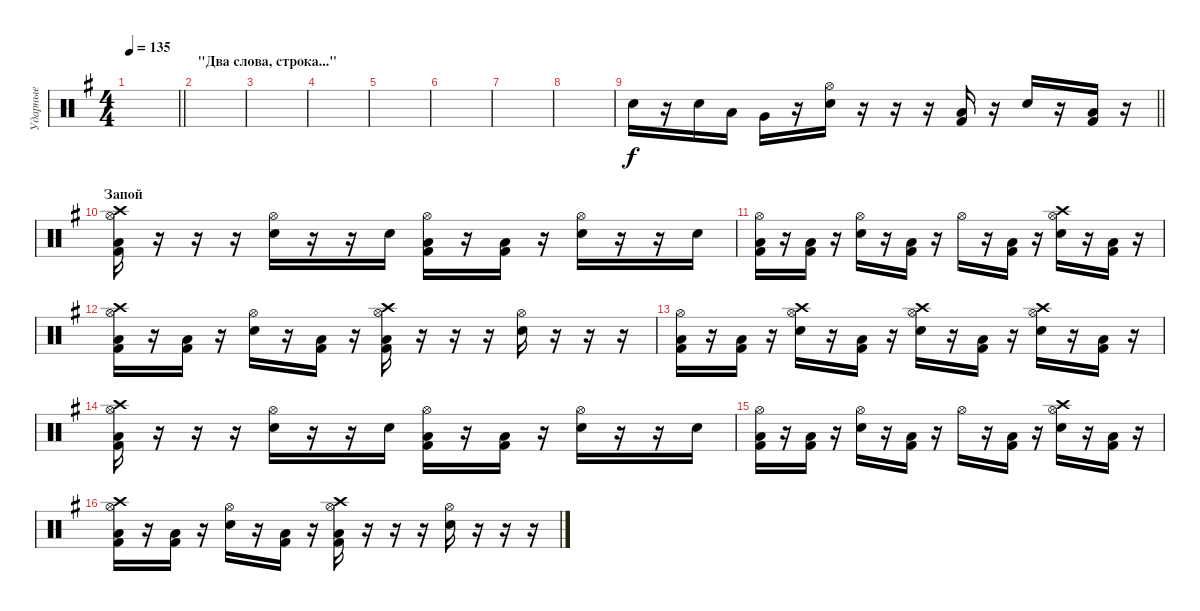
\track ("Ударные" "Ударные") {instrument percussion}
\staff {score}
\articulation defaults
\ts (4 4)
\tempo 135
\clef neutral
\barLineRight lightlight
\ks eminor
|
\section ("" "\"Два слова, строка...\"")
|
|
|
|
|
|
|
\barLineRight lightlight "Electric Snare (hit)".16
r.16 "Electric Snare (hit)".16 "Low Tom (hit)".16 "Very Low Tom (hit)".16 r.16 ("Hi-Hat (open)" "Electric Snare (hit)").16 r.16 r.16 r.16 ("Low Floor Tom (hit)" "Kick (hit) 2").16 r.16 "Electric Snare (hit)".16 r.16 ("Low Floor Tom (hit)" "Kick (hit) 2").16 r.16 |
\section ("" "Запой")
("Crash high (hit)" "Hi-Hat (open)" "Low Floor Tom (hit)" "Kick (hit) 2").16 r.16 r.16 r.16 ("Hi-Hat (open)" "Electric Snare (hit)").16 r.16 r.16 "Electric Snare (hit)".16 ("Hi-Hat (open)" "Low Floor Tom (hit)" "Kick (hit) 2").16 r.16 ("Low Floor Tom (hit)" "Kick (hit) 2").16 r.16 ("Hi-Hat (open)" "Electric Snare (hit)").16 r.16 r.16 "Electric Snare (hit)".16 |
("Hi-Hat (open)" "Low Floor Tom (hit)" "Kick (hit) 2").16 r.16 ("Low Floor Tom (hit)" "Kick (hit) 2").16 r.16 ("Hi-Hat (open)" "Electric Snare (hit)").16 r.16 ("Low Floor Tom (hit)" "Kick (hit) 2").16 r.16 "Hi-Hat (open)".16 r.16 ("Low Floor Tom (hit)" "Kick (hit) 2").16 r.16 ("Crash high (hit)" "Hi-Hat (open)" "Electric Snare (hit)").16 r.16 ("Low Floor Tom (hit)" "Kick (hit) 2").16 r.16 |
("Crash high (hit)" "Hi-Hat (open)" "Low Floor Tom (hit)" "Kick (hit) 2").16 r.16 ("Low Floor Tom (hit)" "Kick (hit) 2").16 r.16 ("Hi-Hat (open)" "Electric Snare (hit)").16 r.16 ("Low Floor Tom (hit)" "Kick (hit) 2").16 r.16 ("Crash high (hit)" "Hi-Hat (open)" "Low Floor Tom (hit)" "Kick (hit) 2").16 r.16 r.16 r.16 ("Hi-Hat (open)" "Electric Snare (hit)").16 r.16 r.16 r.16 |
("Hi-Hat (open)" "Low Floor Tom (hit)" "Kick (hit) 2").16 r.16 ("Low Floor Tom (hit)" "Kick (hit) 2").16 r.16 ("Crash high (hit)" "Hi-Hat (open)" "Electric Snare (hit)").16 r.16 ("Low Floor Tom (hit)" "Kick (hit) 2").16 r.16 ("Crash high (hit)" "Hi-Hat (open)" "Electric Snare (hit)").16 r.16 ("Low Floor Tom (hit)" "Kick (hit) 2").16 r.16 ("Crash high (hit)" "Hi-Hat (open)" "Electric Snare (hit)").16 r.16 ("Low Floor Tom (hit)" "Kick (hit) 2").16 r.16 |
("Crash high (hit)" "Hi-Hat (open)" "Low Floor Tom (hit)" "Kick (hit) 2").16 r.16 r.16 r.16 ("Hi-Hat (open)" "Electric Snare (hit)").16 r.16 r.16 "Electric Snare (hit)".16 ("Hi-Hat (open)" "Low Floor Tom (hit)" "Kick (hit) 2").16 r.16 ("Low Floor Tom (hit)" "Kick (hit) 2").16 r.16 ("Hi-Hat (open)" "Electric Snare (hit)").16 r.16 r.16 "Electric Snare (hit)".16 |
("Hi-Hat (open)" "Low Floor Tom (hit)" "Kick (hit) 2").16 r.16 ("Low Floor Tom (hit)" "Kick (hit) 2").16 r.16 ("Hi-Hat (open)" "Electric Snare (hit)").16 r.16 ("Low Floor Tom (hit)" "Kick (hit) 2").16 r.16 "Hi-Hat (open)".16 r.16 ("Low Floor Tom (hit)" "Kick (hit) 2").16 r.16 ("Crash high (hit)" "Hi-Hat (open)" "Electric Snare (hit)").16 r.16 ("Low Floor Tom (hit)" "Kick (hit) 2").16 r.16 |
("Crash high (hit)" "Hi-Hat (open)" "Low Floor Tom (hit)" "Kick (hit) 2").16 r.16 ("Low Floor Tom (hit)" "Kick (hit) 2").16 r.16 ("Hi-Hat (open)" "Electric Snare (hit)").16 r.16 ("Low Floor Tom (hit)" "Kick (hit) 2").16 r.16 ("Crash high (hit)" "Hi-Hat (open)" "Low Floor Tom (hit)" "Kick (hit) 2").16 r.16 r.16 r.16 ("Hi-Hat (open)" "Electric Snare (hit)").16 r.16 r.16 r.16
